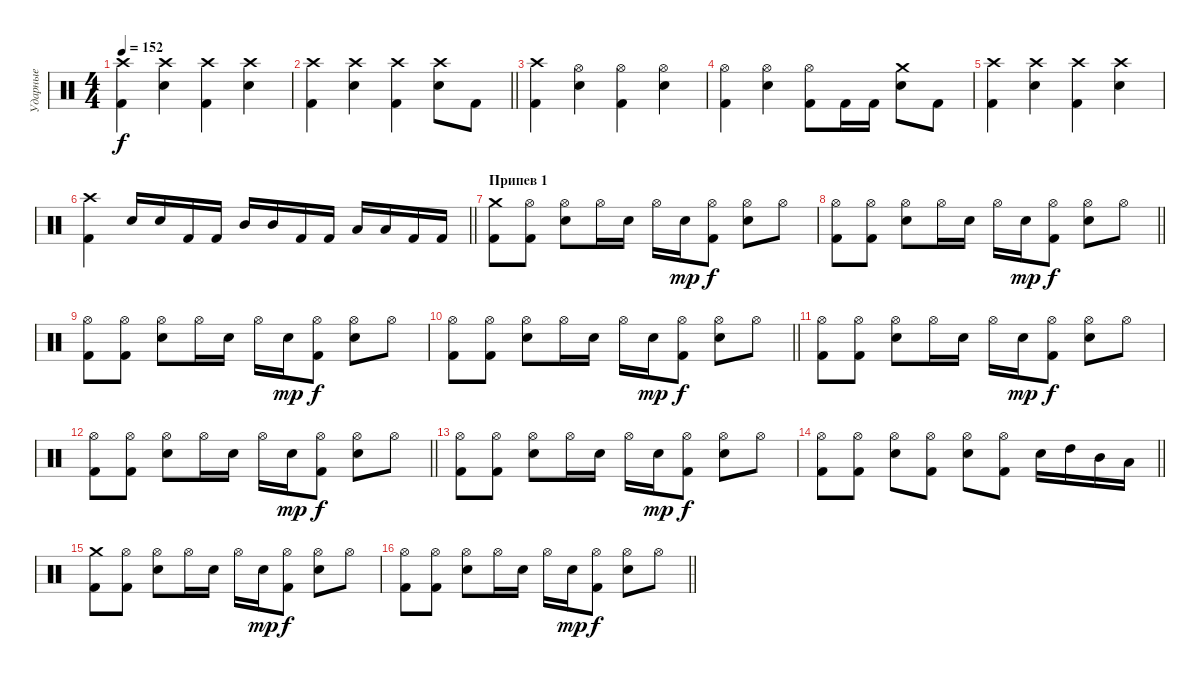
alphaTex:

\track ("Ударные" "Ударные") {instrument percussion}
\staff {score}
\articulation defaults
\ts (4 4)
\tempo 152
\clef neutral
\ks c
("Crash high (hit)" "Kick (hit) 2").4{dy f} ("Crash high (hit)" "Snare (hit) 2").4 ("Crash high (hit)" "Kick (hit) 2").4 ("Crash high (hit)" "Snare (hit) 2").4 |
\barLineRight lightlight
("Crash high (hit)" "Kick (hit) 2").4 ("Crash high (hit)" "Snare (hit) 2").4 ("Crash high (hit)" "Kick (hit) 2").4 ("Crash high (hit)" "Snare (hit) 2").8 "Kick (hit) 2".8 |
("Crash high (hit)" "Kick (hit) 2").4 ("Hi-Hat (open)" "Snare (hit) 2").4 ("Hi-Hat (open)" "Kick (hit) 2").4 ("Hi-Hat (open)" "Snare (hit) 2").4 |
("Hi-Hat (open)" "Kick (hit) 2").4 ("Hi-Hat (open)" "Snare (hit) 2").4 ("Hi-Hat (open)" "Kick (hit) 2").8 "Kick (hit) 2".16 "Kick (hit) 2".16 ("Crash medium (hit)" "Snare (hit) 2").8 "Kick (hit) 2".8 |
("Crash high (hit)" "Kick (hit) 2").4 ("Crash high (hit)" "Snare (hit) 2").4 ("Crash high (hit)" "Kick (hit) 2").4 ("Crash high (hit)" "Snare (hit) 2").4 |
\barLineRight lightlight
("Crash high (hit)" "Kick (hit) 2").4 "Snare (hit) 2".16 "Snare (hit) 2".16 "Kick (hit) 2".16 "Kick (hit) 2".16 "Mid Tom (hit)".16 "Mid Tom (hit)".16 "Kick (hit) 2".16 "Kick (hit) 2".16 "Low Tom (hit)".16 "Low Tom (hit)".16 "Kick (hit) 2".16 "Kick (hit) 2".16 |
\section ("" "Припев 1")
("Crash medium (hit)" "Kick (hit) 2").8 ("Hi-Hat (open)" "Kick (hit) 2").8 ("Hi-Hat (open)" "Snare (hit) 2").8 "Hi-Hat (open)".16 "Snare (hit) 2".16 "Hi-Hat (open)".16 "Snare (hit) 2".16{dy mp} ("Hi-Hat (open)" "Kick (hit) 2").8{dy f} ("Hi-Hat (open)" "Snare (hit) 2").8 "Hi-Hat (open)".8 |
\barLineRight lightlight
("Hi-Hat (open)" "Kick (hit) 2").8 ("Hi-Hat (open)" "Kick (hit) 2").8 ("Hi-Hat (open)" "Snare (hit) 2").8 "Hi-Hat (open)".16 "Snare (hit) 2".16 "Hi-Hat (open)".16 "Snare (hit) 2".16{dy mp} ("Hi-Hat (open)" "Kick (hit) 2").8{dy f} ("Hi-Hat (open)" "Snare (hit) 2").8 "Hi-Hat (open)".8 |
("Hi-Hat (open)" "Kick (hit) 2").8 ("Hi-Hat (open)" "Kick (hit) 2").8 ("Hi-Hat (open)" "Snare (hit) 2").8 "Hi-Hat (open)".16 "Snare (hit) 2".16 "Hi-Hat (open)".16 "Snare (hit) 2".16{dy mp} ("Hi-Hat (open)" "Kick (hit) 2").8{dy f} ("Hi-Hat (open)" "Snare (hit) 2").8 "Hi-Hat (open)".8 |
\barLineRight lightlight
("Hi-Hat (open)" "Kick (hit) 2").8 ("Hi-Hat (open)" "Kick (hit) 2").8 ("Hi-Hat (open)" "Snare (hit) 2").8 "Hi-Hat (open)".16 "Snare (hit) 2".16 "Hi-Hat (open)".16 "Snare (hit) 2".16{dy mp} ("Hi-Hat (open)" "Kick (hit) 2").8{dy f} ("Hi-Hat (open)" "Snare (hit) 2").8 "Hi-Hat (open)".8 |
("Hi-Hat (open)" "Kick (hit) 2").8 ("Hi-Hat (open)" "Kick (hit) 2").8 ("Hi-Hat (open)" "Snare (hit) 2").8 "Hi-Hat (open)".16 "Snare (hit) 2".16 "Hi-Hat (open)".16 "Snare (hit) 2".16{dy mp} ("Hi-Hat (open)" "Kick (hit) 2").8{dy f} ("Hi-Hat (open)" "Snare (hit) 2").8 "Hi-Hat (open)".8 |
\barLineRight lightlight
("Hi-Hat (open)" "Kick (hit) 2").8 ("Hi-Hat (open)" "Kick (hit) 2").8 ("Hi-Hat (open)" "Snare (hit) 2").8 "Hi-Hat (open)".16 "Snare (hit) 2".16 "Hi-Hat (open)".16 "Snare (hit) 2".16{dy mp} ("Hi-Hat (open)" "Kick (hit) 2").8{dy f} ("Hi-Hat (open)" "Snare (hit) 2").8 "Hi-Hat (open)".8 |
("Hi-Hat (open)" "Kick (hit) 2").8 ("Hi-Hat (open)" "Kick (hit) 2").8 ("Hi-Hat (open)" "Snare (hit) 2").8 "Hi-Hat (open)".16 "Snare (hit) 2".16 "Hi-Hat (open)".16 "Snare (hit) 2".16{dy mp} ("Hi-Hat (open)" "Kick (hit) 2").8{dy f} ("Hi-Hat (open)" "Snare (hit) 2").8 "Hi-Hat (open)".8 |
\barLineRight lightlight
("Hi-Hat (open)" "Kick (hit) 2").8 ("Hi-Hat (open)" "Kick (hit) 2").8 ("Hi-Hat (open)" "Snare (hit) 2").8 ("Hi-Hat (open)" "Kick (hit) 2").8 ("Hi-Hat (open)" "Snare (hit) 2").8 ("Hi-Hat (open)" "Kick (hit) 2").8 "Snare (hit) 2".16 "High Tom (hit)".16 "Mid Tom (hit)".16 "Low Tom (hit)".16 |
("Crash medium (hit)" "Kick (hit) 2").8 ("Hi-Hat (open)" "Kick (hit) 2").8 ("Hi-Hat (open)" "Snare (hit) 2").8 "Hi-Hat (open)".16 "Snare (hit) 2".16 "Hi-Hat (open)".16 "Snare (hit) 2".16{dy mp} ("Hi-Hat (open)" "Kick (hit) 2").8{dy f} ("Hi-Hat (open)" "Snare (hit) 2").8 "Hi-Hat (open)".8 |
\barLineRight lightlight
("Hi-Hat (open)" "Kick (hit) 2").8 ("Hi-Hat (open)" "Kick (hit) 2").8 ("Hi-Hat (open)" "Snare (hit) 2").8 "Hi-Hat (open)".16 "Snare (hit) 2".16 "Hi-Hat (open)".16 "Snare (hit) 2".16{dy mp} ("Hi-Hat (open)" "Kick (hit) 2").8{dy f} ("Hi-Hat (open)" "Snare (hit) 2").8 "Hi-Hat (open)".8
